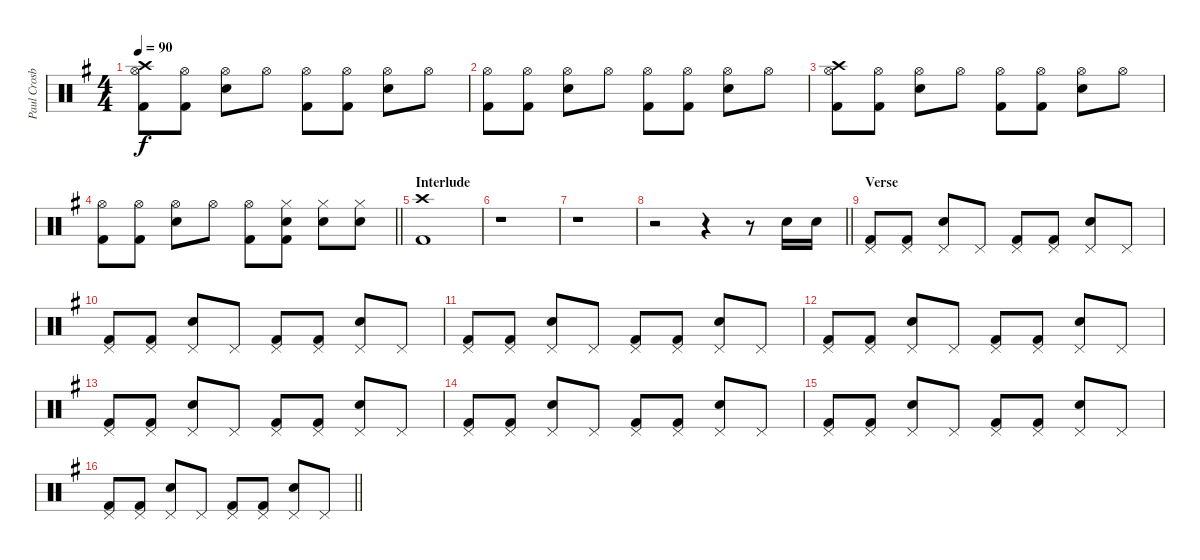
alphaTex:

\track ("Paul Crosby (Drums)" "Paul Crosb") {instrument percussion}
\staff {score}
\articulation defaults
\ts (4 4)
\tempo 90
\clef neutral
\ks g
("Hi-Hat (open)" "Kick (hit) 2" "Crash high (hit)").8{dy f} ("Hi-Hat (open)" "Kick (hit) 2").8 ("Hi-Hat (open)" "Electric Snare (hit)").8 "Hi-Hat (open)".8 ("Hi-Hat (open)" "Kick (hit) 2").8 ("Hi-Hat (open)" "Kick (hit) 2").8 ("Hi-Hat (open)" "Electric Snare (hit)").8 "Hi-Hat (open)".8 |
("Hi-Hat (open)" "Kick (hit) 2").8 ("Hi-Hat (open)" "Kick (hit) 2").8 ("Hi-Hat (open)" "Electric Snare (hit)").8 "Hi-Hat (open)".8 ("Hi-Hat (open)" "Kick (hit) 2").8 ("Hi-Hat (open)" "Kick (hit) 2").8 ("Hi-Hat (open)" "Electric Snare (hit)").8 "Hi-Hat (open)".8 |
("Hi-Hat (open)" "Kick (hit) 2" "Crash high (hit)").8 ("Hi-Hat (open)" "Kick (hit) 2").8 ("Hi-Hat (open)" "Electric Snare (hit)").8 "Hi-Hat (open)".8 ("Hi-Hat (open)" "Kick (hit) 2").8 ("Hi-Hat (open)" "Kick (hit) 2").8 ("Hi-Hat (open)" "Electric Snare (hit)").8 "Hi-Hat (open)".8 |
\barLineRight lightlight
("Hi-Hat (open)" "Kick (hit) 2").8 ("Hi-Hat (open)" "Kick (hit) 2").8 ("Hi-Hat (open)" "Electric Snare (hit)").8 "Hi-Hat (open)".8 ("Hi-Hat (open)" "Kick (hit) 2").8 ("Electric Snare (hit)" "Kick (hit) 2" "Hi-Hat (closed)").8 ("Electric Snare (hit)" "Hi-Hat (closed)").8 ("Electric Snare (hit)" "Hi-Hat (closed)").8 |
\section ("" "Interlude")
("Crash high (hit)" "Kick (hit) 2").1 |
r.1 |
r.1 |
\barLineRight lightlight
r.2 r.4 r.8 "Electric Snare (hit)".16 "Electric Snare (hit)".16 |
\section ("" "Verse")
("Pedal Hi-Hat (hit)" "Kick (hit) 2").8 ("Pedal Hi-Hat (hit)" "Kick (hit) 2").8 ("Pedal Hi-Hat (hit)" "Electric Snare (hit)").8 "Pedal Hi-Hat (hit)".8 ("Pedal Hi-Hat (hit)" "Kick (hit) 2").8 ("Pedal Hi-Hat (hit)" "Kick (hit) 2").8 ("Pedal Hi-Hat (hit)" "Electric Snare (hit)").8 "Pedal Hi-Hat (hit)".8 |
("Pedal Hi-Hat (hit)" "Kick (hit) 2").8 ("Pedal Hi-Hat (hit)" "Kick (hit) 2").8 ("Pedal Hi-Hat (hit)" "Electric Snare (hit)").8 "Pedal Hi-Hat (hit)".8 ("Pedal Hi-Hat (hit)" "Kick (hit) 2").8 ("Pedal Hi-Hat (hit)" "Kick (hit) 2").8 ("Pedal Hi-Hat (hit)" "Electric Snare (hit)").8 "Pedal Hi-Hat (hit)".8 |
("Pedal Hi-Hat (hit)" "Kick (hit) 2").8 ("Pedal Hi-Hat (hit)" "Kick (hit) 2").8 ("Pedal Hi-Hat (hit)" "Electric Snare (hit)").8 "Pedal Hi-Hat (hit)".8 ("Pedal Hi-Hat (hit)" "Kick (hit) 2").8 ("Pedal Hi-Hat (hit)" "Kick (hit) 2").8 ("Pedal Hi-Hat (hit)" "Electric Snare (hit)").8 "Pedal Hi-Hat (hit)".8 |
("Pedal Hi-Hat (hit)" "Kick (hit) 2").8 ("Pedal Hi-Hat (hit)" "Kick (hit) 2").8 ("Pedal Hi-Hat (hit)" "Electric Snare (hit)").8 "Pedal Hi-Hat (hit)".8 ("Pedal Hi-Hat (hit)" "Kick (hit) 2").8 ("Pedal Hi-Hat (hit)" "Kick (hit) 2").8 ("Pedal Hi-Hat (hit)" "Electric Snare (hit)").8 "Pedal Hi-Hat (hit)".8 |
("Pedal Hi-Hat (hit)" "Kick (hit) 2").8 ("Pedal Hi-Hat (hit)" "Kick (hit) 2").8 ("Pedal Hi-Hat (hit)" "Electric Snare (hit)").8 "Pedal Hi-Hat (hit)".8 ("Pedal Hi-Hat (hit)" "Kick (hit) 2").8 ("Pedal Hi-Hat (hit)" "Kick (hit) 2").8 ("Pedal Hi-Hat (hit)" "Electric Snare (hit)").8 "Pedal Hi-Hat (hit)".8 |
("Pedal Hi-Hat (hit)" "Kick (hit) 2").8 ("Pedal Hi-Hat (hit)" "Kick (hit) 2").8 ("Pedal Hi-Hat (hit)" "Electric Snare (hit)").8 "Pedal Hi-Hat (hit)".8 ("Pedal Hi-Hat (hit)" "Kick (hit) 2").8 ("Pedal Hi-Hat (hit)" "Kick (hit) 2").8 ("Pedal Hi-Hat (hit)" "Electric Snare (hit)").8 "Pedal Hi-Hat (hit)".8 |
("Pedal Hi-Hat (hit)" "Kick (hit) 2").8 ("Pedal Hi-Hat (hit)" "Kick (hit) 2").8 ("Pedal Hi-Hat (hit)" "Electric Snare (hit)").8 "Pedal Hi-Hat (hit)".8 ("Pedal Hi-Hat (hit)" "Kick (hit) 2").8 ("Pedal Hi-Hat (hit)" "Kick (hit) 2").8 ("Pedal Hi-Hat (hit)" "Electric Snare (hit)").8 "Pedal Hi-Hat (hit)".8 |
\barLineRight lightlight
("Pedal Hi-Hat (hit)" "Kick (hit) 2").8 ("Pedal Hi-Hat (hit)" "Kick (hit) 2").8 ("Pedal Hi-Hat (hit)" "Electric Snare (hit)").8 "Pedal Hi-Hat (hit)".8 ("Pedal Hi-Hat (hit)" "Kick (hit) 2").8 ("Pedal Hi-Hat (hit)" "Kick (hit) 2").8 ("Pedal Hi-Hat (hit)" "Electric Snare (hit)").8 "Pedal Hi-Hat (hit)".8
